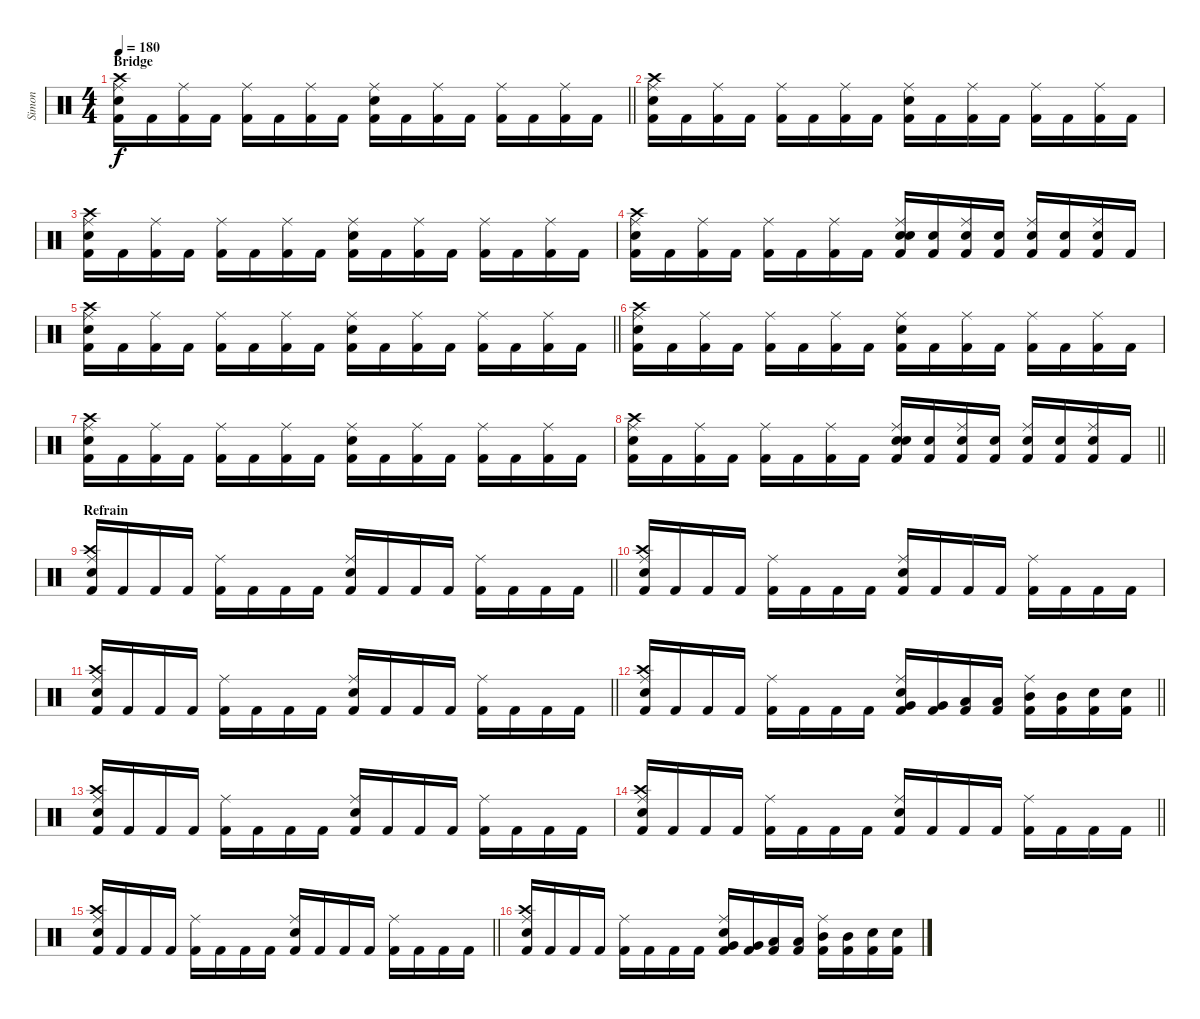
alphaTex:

\track ("Simon" "Simon") {instrument percussion}
\staff {score}
\articulation defaults
\ts (4 4)
\section ("" "Bridge")
\tempo 180
\clef neutral
\barLineRight lightlight
\ks c
("Electric Snare (hit)" "Crash high (hit)" "Ride (middle)" "Kick (hit) 2").16{dy f} "Kick (hit) 2".16 ("Ride (middle)" "Kick (hit) 2").16 "Kick (hit) 2".16 ("Ride (middle)" "Kick (hit) 2").16 "Kick (hit) 2".16 ("Ride (middle)" "Kick (hit) 2").16 "Kick (hit) 2".16 ("Electric Snare (hit)" "Ride (middle)" "Kick (hit) 2").16 "Kick (hit) 2".16 ("Ride (middle)" "Kick (hit) 2").16 "Kick (hit) 2".16 ("Ride (middle)" "Kick (hit) 2").16 "Kick (hit) 2".16 ("Ride (middle)" "Kick (hit) 2").16 "Kick (hit) 2".16 |
("Electric Snare (hit)" "Crash high (hit)" "Ride (middle)" "Kick (hit) 2").16 "Kick (hit) 2".16 ("Ride (middle)" "Kick (hit) 2").16 "Kick (hit) 2".16 ("Ride (middle)" "Kick (hit) 2").16 "Kick (hit) 2".16 ("Ride (middle)" "Kick (hit) 2").16 "Kick (hit) 2".16 ("Electric Snare (hit)" "Ride (middle)" "Kick (hit) 2").16 "Kick (hit) 2".16 ("Ride (middle)" "Kick (hit) 2").16 "Kick (hit) 2".16 ("Ride (middle)" "Kick (hit) 2").16 "Kick (hit) 2".16 ("Ride (middle)" "Kick (hit) 2").16 "Kick (hit) 2".16 |
("Electric Snare (hit)" "Crash high (hit)" "Ride (middle)" "Kick (hit) 2").16 "Kick (hit) 2".16 ("Ride (middle)" "Kick (hit) 2").16 "Kick (hit) 2".16 ("Ride (middle)" "Kick (hit) 2").16 "Kick (hit) 2".16 ("Ride (middle)" "Kick (hit) 2").16 "Kick (hit) 2".16 ("Electric Snare (hit)" "Ride (middle)" "Kick (hit) 2").16 "Kick (hit) 2".16 ("Ride (middle)" "Kick (hit) 2").16 "Kick (hit) 2".16 ("Ride (middle)" "Kick (hit) 2").16 "Kick (hit) 2".16 ("Ride (middle)" "Kick (hit) 2").16 "Kick (hit) 2".16 |
("Electric Snare (hit)" "Crash high (hit)" "Ride (middle)" "Kick (hit) 2").16 "Kick (hit) 2".16 ("Ride (middle)" "Kick (hit) 2").16 "Kick (hit) 2".16 ("Ride (middle)" "Kick (hit) 2").16 "Kick (hit) 2".16 ("Ride (middle)" "Kick (hit) 2").16 "Kick (hit) 2".16 ("Electric Snare (hit)" "Ride (middle)" "Electric Snare (hit)" "Kick (hit) 2").16 ("Electric Snare (hit)" "Kick (hit) 2").16 ("Ride (middle)" "Electric Snare (hit)" "Kick (hit) 2").16 ("Electric Snare (hit)" "Kick (hit) 2").16 ("Ride (middle)" "Electric Snare (hit)" "Kick (hit) 2").16 ("Electric Snare (hit)" "Kick (hit) 2").16 ("Ride (middle)" "Electric Snare (hit)" "Kick (hit) 2").16 "Kick (hit) 2".16 |
\barLineRight lightlight
("Electric Snare (hit)" "Crash high (hit)" "Ride (middle)" "Kick (hit) 2").16 "Kick (hit) 2".16 ("Ride (middle)" "Kick (hit) 2").16 "Kick (hit) 2".16 ("Ride (middle)" "Kick (hit) 2").16 "Kick (hit) 2".16 ("Ride (middle)" "Kick (hit) 2").16 "Kick (hit) 2".16 ("Electric Snare (hit)" "Ride (middle)" "Kick (hit) 2").16 "Kick (hit) 2".16 ("Ride (middle)" "Kick (hit) 2").16 "Kick (hit) 2".16 ("Ride (middle)" "Kick (hit) 2").16 "Kick (hit) 2".16 ("Ride (middle)" "Kick (hit) 2").16 "Kick (hit) 2".16 |
("Electric Snare (hit)" "Crash high (hit)" "Ride (middle)" "Kick (hit) 2").16 "Kick (hit) 2".16 ("Ride (middle)" "Kick (hit) 2").16 "Kick (hit) 2".16 ("Ride (middle)" "Kick (hit) 2").16 "Kick (hit) 2".16 ("Ride (middle)" "Kick (hit) 2").16 "Kick (hit) 2".16 ("Electric Snare (hit)" "Ride (middle)" "Kick (hit) 2").16 "Kick (hit) 2".16 ("Ride (middle)" "Kick (hit) 2").16 "Kick (hit) 2".16 ("Ride (middle)" "Kick (hit) 2").16 "Kick (hit) 2".16 ("Ride (middle)" "Kick (hit) 2").16 "Kick (hit) 2".16 |
("Electric Snare (hit)" "Crash high (hit)" "Ride (middle)" "Kick (hit) 2").16 "Kick (hit) 2".16 ("Ride (middle)" "Kick (hit) 2").16 "Kick (hit) 2".16 ("Ride (middle)" "Kick (hit) 2").16 "Kick (hit) 2".16 ("Ride (middle)" "Kick (hit) 2").16 "Kick (hit) 2".16 ("Electric Snare (hit)" "Ride (middle)" "Kick (hit) 2").16 "Kick (hit) 2".16 ("Ride (middle)" "Kick (hit) 2").16 "Kick (hit) 2".16 ("Ride (middle)" "Kick (hit) 2").16 "Kick (hit) 2".16 ("Ride (middle)" "Kick (hit) 2").16 "Kick (hit) 2".16 |
\barLineRight lightlight
("Electric Snare (hit)" "Crash high (hit)" "Ride (middle)" "Kick (hit) 2").16 "Kick (hit) 2".16 ("Ride (middle)" "Kick (hit) 2").16 "Kick (hit) 2".16 ("Ride (middle)" "Kick (hit) 2").16 "Kick (hit) 2".16 ("Ride (middle)" "Kick (hit) 2").16 "Kick (hit) 2".16 ("Electric Snare (hit)" "Ride (middle)" "Electric Snare (hit)" "Kick (hit) 2").16 ("Electric Snare (hit)" "Kick (hit) 2").16 ("Ride (middle)" "Electric Snare (hit)" "Kick (hit) 2").16 ("Electric Snare (hit)" "Kick (hit) 2").16 ("Ride (middle)" "Electric Snare (hit)" "Kick (hit) 2").16 ("Electric Snare (hit)" "Kick (hit) 2").16 ("Ride (middle)" "Electric Snare (hit)" "Kick (hit) 2").16 "Kick (hit) 2".16 |
\section ("" "Refrain")
\barLineRight lightlight
("Electric Snare (hit)" "Crash high (hit)" "Ride (middle)" "Kick (hit) 2").16 "Kick (hit) 2".16 "Kick (hit) 2".16 "Kick (hit) 2".16 ("Ride (middle)" "Kick (hit) 2").16 "Kick (hit) 2".16 "Kick (hit) 2".16 "Kick (hit) 2".16 ("Electric Snare (hit)" "Ride (middle)" "Kick (hit) 2").16 "Kick (hit) 2".16 "Kick (hit) 2".16 "Kick (hit) 2".16 ("Ride (middle)" "Kick (hit) 2").16 "Kick (hit) 2".16 "Kick (hit) 2".16 "Kick (hit) 2".16 |
("Electric Snare (hit)" "Crash high (hit)" "Ride (middle)" "Kick (hit) 2").16 "Kick (hit) 2".16 "Kick (hit) 2".16 "Kick (hit) 2".16 ("Ride (middle)" "Kick (hit) 2").16 "Kick (hit) 2".16 "Kick (hit) 2".16 "Kick (hit) 2".16 ("Electric Snare (hit)" "Ride (middle)" "Kick (hit) 2").16 "Kick (hit) 2".16 "Kick (hit) 2".16 "Kick (hit) 2".16 ("Ride (middle)" "Kick (hit) 2").16 "Kick (hit) 2".16 "Kick (hit) 2".16 "Kick (hit) 2".16 |
\barLineRight lightlight
("Electric Snare (hit)" "Crash high (hit)" "Ride (middle)" "Kick (hit) 2").16 "Kick (hit) 2".16 "Kick (hit) 2".16 "Kick (hit) 2".16 ("Ride (middle)" "Kick (hit) 2").16 "Kick (hit) 2".16 "Kick (hit) 2".16 "Kick (hit) 2".16 ("Electric Snare (hit)" "Ride (middle)" "Kick (hit) 2").16 "Kick (hit) 2".16 "Kick (hit) 2".16 "Kick (hit) 2".16 ("Ride (middle)" "Kick (hit) 2").16 "Kick (hit) 2".16 "Kick (hit) 2".16 "Kick (hit) 2".16 |
\barLineRight lightlight
("Electric Snare (hit)" "Crash high (hit)" "Ride (middle)" "Kick (hit) 2").16 "Kick (hit) 2".16 "Kick (hit) 2".16 "Kick (hit) 2".16 ("Ride (middle)" "Kick (hit) 2").16 "Kick (hit) 2".16 "Kick (hit) 2".16 "Kick (hit) 2".16 ("Electric Snare (hit)" "Ride (middle)" "Very Low Tom (hit)" "Kick (hit) 2").16 ("Very Low Tom (hit)" "Kick (hit) 2").16 ("Low Tom (hit)" "Kick (hit) 2").16 ("Low Tom (hit)" "Kick (hit) 2").16 ("Ride (middle)" "Mid Tom (hit)" "Kick (hit) 2").16 ("Mid Tom (hit)" "Kick (hit) 2").16 ("Electric Snare (hit)" "Kick (hit) 2").16 ("Electric Snare (hit)" "Kick (hit) 2").16 |
("Electric Snare (hit)" "Crash high (hit)" "Ride (middle)" "Kick (hit) 2").16 "Kick (hit) 2".16 "Kick (hit) 2".16 "Kick (hit) 2".16 ("Ride (middle)" "Kick (hit) 2").16 "Kick (hit) 2".16 "Kick (hit) 2".16 "Kick (hit) 2".16 ("Electric Snare (hit)" "Ride (middle)" "Kick (hit) 2").16 "Kick (hit) 2".16 "Kick (hit) 2".16 "Kick (hit) 2".16 ("Ride (middle)" "Kick (hit) 2").16 "Kick (hit) 2".16 "Kick (hit) 2".16 "Kick (hit) 2".16 |
\barLineRight lightlight
("Electric Snare (hit)" "Crash high (hit)" "Ride (middle)" "Kick (hit) 2").16 "Kick (hit) 2".16 "Kick (hit) 2".16 "Kick (hit) 2".16 ("Ride (middle)" "Kick (hit) 2").16 "Kick (hit) 2".16 "Kick (hit) 2".16 "Kick (hit) 2".16 ("Electric Snare (hit)" "Ride (middle)" "Kick (hit) 2").16 "Kick (hit) 2".16 "Kick (hit) 2".16 "Kick (hit) 2".16 ("Ride (middle)" "Kick (hit) 2").16 "Kick (hit) 2".16 "Kick (hit) 2".16 "Kick (hit) 2".16 |
\barLineRight lightlight
("Electric Snare (hit)" "Crash high (hit)" "Ride (middle)" "Kick (hit) 2").16 "Kick (hit) 2".16 "Kick (hit) 2".16 "Kick (hit) 2".16 ("Ride (middle)" "Kick (hit) 2").16 "Kick (hit) 2".16 "Kick (hit) 2".16 "Kick (hit) 2".16 ("Electric Snare (hit)" "Ride (middle)" "Kick (hit) 2").16 "Kick (hit) 2".16 "Kick (hit) 2".16 "Kick (hit) 2".16 ("Ride (middle)" "Kick (hit) 2").16 "Kick (hit) 2".16 "Kick (hit) 2".16 "Kick (hit) 2".16 |
("Electric Snare (hit)" "Crash high (hit)" "Ride (middle)" "Kick (hit) 2").16 "Kick (hit) 2".16 "Kick (hit) 2".16 "Kick (hit) 2".16 ("Ride (middle)" "Kick (hit) 2").16 "Kick (hit) 2".16 "Kick (hit) 2".16 "Kick (hit) 2".16 ("Electric Snare (hit)" "Ride (middle)" "Very Low Tom (hit)" "Kick (hit) 2").16 ("Very Low Tom (hit)" "Kick (hit) 2").16 ("Low Tom (hit)" "Kick (hit) 2").16 ("Low Tom (hit)" "Kick (hit) 2").16 ("Ride (middle)" "Mid Tom (hit)" "Kick (hit) 2").16 ("Mid Tom (hit)" "Kick (hit) 2").16 ("Electric Snare (hit)" "Kick (hit) 2").16 ("Electric Snare (hit)" "Kick (hit) 2").16
